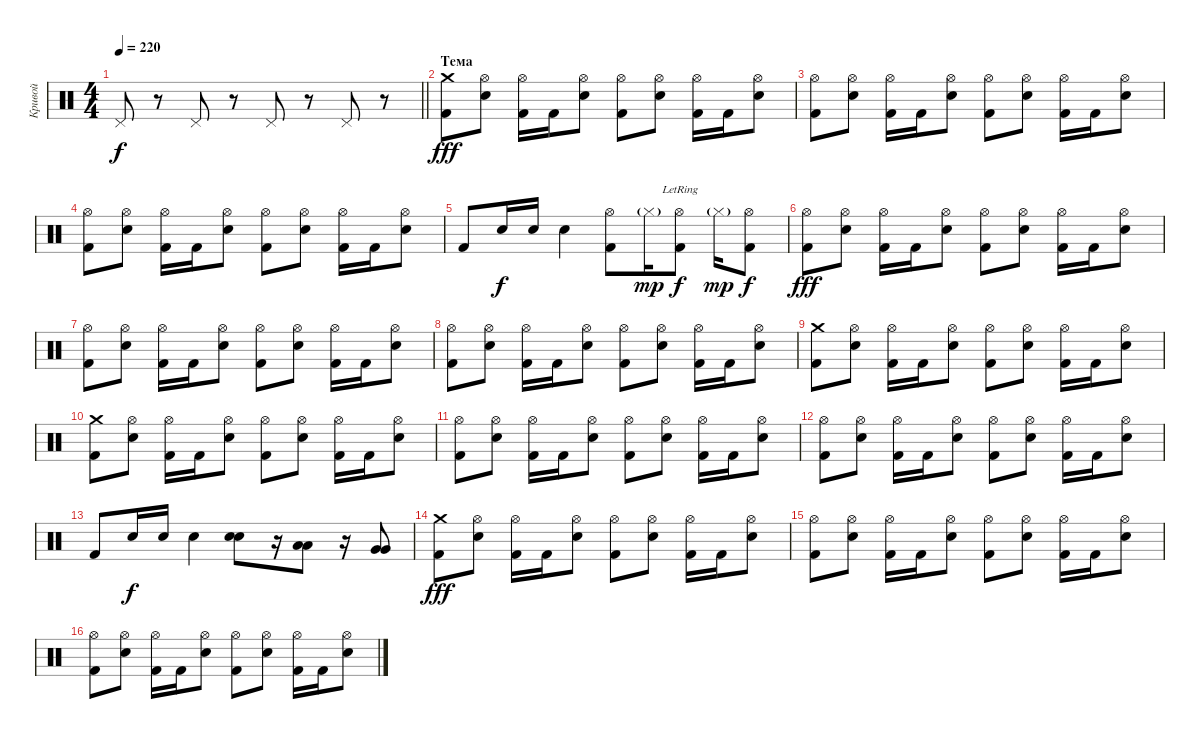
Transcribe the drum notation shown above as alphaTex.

\track ("Кривой" "Кривой") {instrument percussion}
\staff {score}
\articulation defaults
\ts (4 4)
\tempo 220
\clef neutral
\barLineRight lightlight
\ks c "Pedal Hi-Hat (hit)".8{dy f}
r.8 "Pedal Hi-Hat (hit)".8 r.8 "Pedal Hi-Hat (hit)".8 r.8 "Pedal Hi-Hat (hit)".8 r.8 |
\section ("" "Тема")
("Crash medium (hit)" "Kick (hit) 2").8{dy fff} ("Hi-Hat (open)" "Electric Snare (hit)").8 ("Hi-Hat (open)" "Kick (hit) 2").16 "Kick (hit) 2".16 ("Hi-Hat (open)" "Electric Snare (hit)").8 ("Hi-Hat (open)" "Kick (hit) 2").8 ("Hi-Hat (open)" "Electric Snare (hit)").8 ("Hi-Hat (open)" "Kick (hit) 2").16 "Kick (hit) 2".16 ("Hi-Hat (open)" "Electric Snare (hit)").8 |
("Hi-Hat (open)" "Kick (hit) 2").8 ("Hi-Hat (open)" "Electric Snare (hit)").8 ("Hi-Hat (open)" "Kick (hit) 2").16 "Kick (hit) 2".16 ("Hi-Hat (open)" "Electric Snare (hit)").8 ("Hi-Hat (open)" "Kick (hit) 2").8 ("Hi-Hat (open)" "Electric Snare (hit)").8 ("Hi-Hat (open)" "Kick (hit) 2").16 "Kick (hit) 2".16 ("Hi-Hat (open)" "Electric Snare (hit)").8 |
("Hi-Hat (open)" "Kick (hit) 2").8 ("Hi-Hat (open)" "Electric Snare (hit)").8 ("Hi-Hat (open)" "Kick (hit) 2").16 "Kick (hit) 2".16 ("Hi-Hat (open)" "Electric Snare (hit)").8 ("Hi-Hat (open)" "Kick (hit) 2").8 ("Hi-Hat (open)" "Electric Snare (hit)").8 ("Hi-Hat (open)" "Kick (hit) 2").16 "Kick (hit) 2".16 ("Hi-Hat (open)" "Electric Snare (hit)").8 |
"Kick (hit) 2".8 "Electric Snare (hit)".16{dy f} "Electric Snare (hit)".16 "Electric Snare (hit)".4 ("Hi-Hat (open)" "Kick (hit) 2").8 "Hi-Hat (closed)"{g}.16{dy mp} ("Hi-Hat (open)"{lr} "Kick (hit) 2").8{dy f} "Hi-Hat (closed)"{g}.16{dy mp} ("Hi-Hat (open)" "Kick (hit) 2").8{dy f} |
("Hi-Hat (open)" "Kick (hit) 2").8{dy fff} ("Hi-Hat (open)" "Electric Snare (hit)").8 ("Hi-Hat (open)" "Kick (hit) 2").16 "Kick (hit) 2".16 ("Hi-Hat (open)" "Electric Snare (hit)").8 ("Hi-Hat (open)" "Kick (hit) 2").8 ("Hi-Hat (open)" "Electric Snare (hit)").8 ("Hi-Hat (open)" "Kick (hit) 2").16 "Kick (hit) 2".16 ("Hi-Hat (open)" "Electric Snare (hit)").8 |
("Hi-Hat (open)" "Kick (hit) 2").8 ("Hi-Hat (open)" "Electric Snare (hit)").8 ("Hi-Hat (open)" "Kick (hit) 2").16 "Kick (hit) 2".16 ("Hi-Hat (open)" "Electric Snare (hit)").8 ("Hi-Hat (open)" "Kick (hit) 2").8 ("Hi-Hat (open)" "Electric Snare (hit)").8 ("Hi-Hat (open)" "Kick (hit) 2").16 "Kick (hit) 2".16 ("Hi-Hat (open)" "Electric Snare (hit)").8 |
("Hi-Hat (open)" "Kick (hit) 2").8 ("Hi-Hat (open)" "Electric Snare (hit)").8 ("Hi-Hat (open)" "Kick (hit) 2").16 "Kick (hit) 2".16 ("Hi-Hat (open)" "Electric Snare (hit)").8 ("Hi-Hat (open)" "Kick (hit) 2").8 ("Hi-Hat (open)" "Electric Snare (hit)").8 ("Hi-Hat (open)" "Kick (hit) 2").16 "Kick (hit) 2".16 ("Hi-Hat (open)" "Electric Snare (hit)").8 |
("Crash medium (hit)" "Kick (hit) 2").8 ("Hi-Hat (open)" "Electric Snare (hit)").8 ("Hi-Hat (open)" "Kick (hit) 2").16 "Kick (hit) 2".16 ("Hi-Hat (open)" "Electric Snare (hit)").8 ("Hi-Hat (open)" "Kick (hit) 2").8 ("Hi-Hat (open)" "Electric Snare (hit)").8 ("Hi-Hat (open)" "Kick (hit) 2").16 "Kick (hit) 2".16 ("Hi-Hat (open)" "Electric Snare (hit)").8 |
("Crash medium (hit)" "Kick (hit) 2").8 ("Hi-Hat (open)" "Electric Snare (hit)").8 ("Hi-Hat (open)" "Kick (hit) 2").16 "Kick (hit) 2".16 ("Hi-Hat (open)" "Electric Snare (hit)").8 ("Hi-Hat (open)" "Kick (hit) 2").8 ("Hi-Hat (open)" "Electric Snare (hit)").8 ("Hi-Hat (open)" "Kick (hit) 2").16 "Kick (hit) 2".16 ("Hi-Hat (open)" "Electric Snare (hit)").8 |
("Hi-Hat (open)" "Kick (hit) 2").8 ("Hi-Hat (open)" "Electric Snare (hit)").8 ("Hi-Hat (open)" "Kick (hit) 2").16 "Kick (hit) 2".16 ("Hi-Hat (open)" "Electric Snare (hit)").8 ("Hi-Hat (open)" "Kick (hit) 2").8 ("Hi-Hat (open)" "Electric Snare (hit)").8 ("Hi-Hat (open)" "Kick (hit) 2").16 "Kick (hit) 2".16 ("Hi-Hat (open)" "Electric Snare (hit)").8 |
("Hi-Hat (open)" "Kick (hit) 2").8 ("Hi-Hat (open)" "Electric Snare (hit)").8 ("Hi-Hat (open)" "Kick (hit) 2").16 "Kick (hit) 2".16 ("Hi-Hat (open)" "Electric Snare (hit)").8 ("Hi-Hat (open)" "Kick (hit) 2").8 ("Hi-Hat (open)" "Electric Snare (hit)").8 ("Hi-Hat (open)" "Kick (hit) 2").16 "Kick (hit) 2".16 ("Hi-Hat (open)" "Electric Snare (hit)").8 |
"Kick (hit) 2".8 "Electric Snare (hit)".16{dy f} "Electric Snare (hit)".16 "Electric Snare (hit)".4 ("Electric Snare (hit)" "Electric Snare (hit)").8 r.16 ("Low Tom (hit)" "Low Tom (hit)").8 r.16 ("Very Low Tom (hit)" "Very Low Tom (hit)").8 |
("Crash medium (hit)" "Kick (hit) 2").8{dy fff} ("Hi-Hat (open)" "Electric Snare (hit)").8 ("Hi-Hat (open)" "Kick (hit) 2").16 "Kick (hit) 2".16 ("Hi-Hat (open)" "Electric Snare (hit)").8 ("Hi-Hat (open)" "Kick (hit) 2").8 ("Hi-Hat (open)" "Electric Snare (hit)").8 ("Hi-Hat (open)" "Kick (hit) 2").16 "Kick (hit) 2".16 ("Hi-Hat (open)" "Electric Snare (hit)").8 |
("Hi-Hat (open)" "Kick (hit) 2").8 ("Hi-Hat (open)" "Electric Snare (hit)").8 ("Hi-Hat (open)" "Kick (hit) 2").16 "Kick (hit) 2".16 ("Hi-Hat (open)" "Electric Snare (hit)").8 ("Hi-Hat (open)" "Kick (hit) 2").8 ("Hi-Hat (open)" "Electric Snare (hit)").8 ("Hi-Hat (open)" "Kick (hit) 2").16 "Kick (hit) 2".16 ("Hi-Hat (open)" "Electric Snare (hit)").8 |
("Hi-Hat (open)" "Kick (hit) 2").8 ("Hi-Hat (open)" "Electric Snare (hit)").8 ("Hi-Hat (open)" "Kick (hit) 2").16 "Kick (hit) 2".16 ("Hi-Hat (open)" "Electric Snare (hit)").8 ("Hi-Hat (open)" "Kick (hit) 2").8 ("Hi-Hat (open)" "Electric Snare (hit)").8 ("Hi-Hat (open)" "Kick (hit) 2").16 "Kick (hit) 2".16 ("Hi-Hat (open)" "Electric Snare (hit)").8
